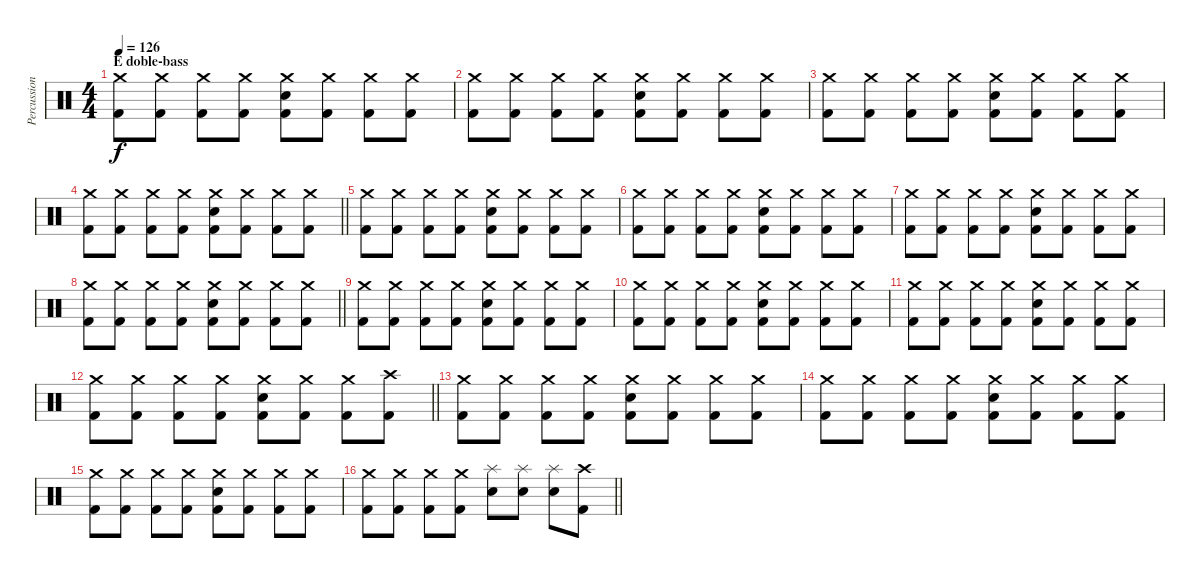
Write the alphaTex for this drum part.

\track ("Percussion" "Percussion") {instrument percussion}
\staff {score}
\articulation defaults
\ts (4 4)
\section ("" "E doble-bass")
\tempo 126
\clef neutral
\ks c
("Crash medium (hit)" "Kick (hit) 2").8{dy f} ("Crash medium (hit)" "Kick (hit) 2").8 ("Crash medium (hit)" "Kick (hit) 2").8 ("Crash medium (hit)" "Kick (hit) 2").8 ("Crash medium (hit)" "Electric Snare (hit)" "Kick (hit) 2").8 ("Crash medium (hit)" "Kick (hit) 2").8 ("Crash medium (hit)" "Kick (hit) 2").8 ("Crash medium (hit)" "Kick (hit) 2").8 |
("Crash medium (hit)" "Kick (hit) 2").8 ("Crash medium (hit)" "Kick (hit) 2").8 ("Crash medium (hit)" "Kick (hit) 2").8 ("Crash medium (hit)" "Kick (hit) 2").8 ("Crash medium (hit)" "Electric Snare (hit)" "Kick (hit) 2").8 ("Crash medium (hit)" "Kick (hit) 2").8 ("Crash medium (hit)" "Kick (hit) 2").8 ("Crash medium (hit)" "Kick (hit) 2").8 |
("Crash medium (hit)" "Kick (hit) 2").8 ("Crash medium (hit)" "Kick (hit) 2").8 ("Crash medium (hit)" "Kick (hit) 2").8 ("Crash medium (hit)" "Kick (hit) 2").8 ("Crash medium (hit)" "Electric Snare (hit)" "Kick (hit) 2").8 ("Crash medium (hit)" "Kick (hit) 2").8 ("Crash medium (hit)" "Kick (hit) 2").8 ("Crash medium (hit)" "Kick (hit) 2").8 |
\barLineRight lightlight
("Crash medium (hit)" "Kick (hit) 2").8 ("Crash medium (hit)" "Kick (hit) 2").8 ("Crash medium (hit)" "Kick (hit) 2").8 ("Crash medium (hit)" "Kick (hit) 2").8 ("Crash medium (hit)" "Electric Snare (hit)" "Kick (hit) 2").8 ("Crash medium (hit)" "Kick (hit) 2").8 ("Crash medium (hit)" "Kick (hit) 2").8 ("Crash medium (hit)" "Kick (hit) 2").8 |
("Crash medium (hit)" "Kick (hit) 2").8 ("Crash medium (hit)" "Kick (hit) 2").8 ("Crash medium (hit)" "Kick (hit) 2").8 ("Crash medium (hit)" "Kick (hit) 2").8 ("Crash medium (hit)" "Electric Snare (hit)" "Kick (hit) 2").8 ("Crash medium (hit)" "Kick (hit) 2").8 ("Crash medium (hit)" "Kick (hit) 2").8 ("Crash medium (hit)" "Kick (hit) 2").8 |
("Crash medium (hit)" "Kick (hit) 2").8 ("Crash medium (hit)" "Kick (hit) 2").8 ("Crash medium (hit)" "Kick (hit) 2").8 ("Crash medium (hit)" "Kick (hit) 2").8 ("Crash medium (hit)" "Electric Snare (hit)" "Kick (hit) 2").8 ("Crash medium (hit)" "Kick (hit) 2").8 ("Crash medium (hit)" "Kick (hit) 2").8 ("Crash medium (hit)" "Kick (hit) 2").8 |
("Crash medium (hit)" "Kick (hit) 2").8 ("Crash medium (hit)" "Kick (hit) 2").8 ("Crash medium (hit)" "Kick (hit) 2").8 ("Crash medium (hit)" "Kick (hit) 2").8 ("Crash medium (hit)" "Electric Snare (hit)" "Kick (hit) 2").8 ("Crash medium (hit)" "Kick (hit) 2").8 ("Crash medium (hit)" "Kick (hit) 2").8 ("Crash medium (hit)" "Kick (hit) 2").8 |
\barLineRight lightlight
("Crash medium (hit)" "Kick (hit) 2").8 ("Crash medium (hit)" "Kick (hit) 2").8 ("Crash medium (hit)" "Kick (hit) 2").8 ("Crash medium (hit)" "Kick (hit) 2").8 ("Crash medium (hit)" "Electric Snare (hit)" "Kick (hit) 2").8 ("Crash medium (hit)" "Kick (hit) 2").8 ("Crash medium (hit)" "Kick (hit) 2").8 ("Crash medium (hit)" "Kick (hit) 2").8 |
("Crash medium (hit)" "Kick (hit) 2").8 ("Crash medium (hit)" "Kick (hit) 2").8 ("Crash medium (hit)" "Kick (hit) 2").8 ("Crash medium (hit)" "Kick (hit) 2").8 ("Crash medium (hit)" "Electric Snare (hit)" "Kick (hit) 2").8 ("Crash medium (hit)" "Kick (hit) 2").8 ("Crash medium (hit)" "Kick (hit) 2").8 ("Crash medium (hit)" "Kick (hit) 2").8 |
("Crash medium (hit)" "Kick (hit) 2").8 ("Crash medium (hit)" "Kick (hit) 2").8 ("Crash medium (hit)" "Kick (hit) 2").8 ("Crash medium (hit)" "Kick (hit) 2").8 ("Crash medium (hit)" "Electric Snare (hit)" "Kick (hit) 2").8 ("Crash medium (hit)" "Kick (hit) 2").8 ("Crash medium (hit)" "Kick (hit) 2").8 ("Crash medium (hit)" "Kick (hit) 2").8 |
("Crash medium (hit)" "Kick (hit) 2").8 ("Crash medium (hit)" "Kick (hit) 2").8 ("Crash medium (hit)" "Kick (hit) 2").8 ("Crash medium (hit)" "Kick (hit) 2").8 ("Crash medium (hit)" "Electric Snare (hit)" "Kick (hit) 2").8 ("Crash medium (hit)" "Kick (hit) 2").8 ("Crash medium (hit)" "Kick (hit) 2").8 ("Crash medium (hit)" "Kick (hit) 2").8 |
\barLineRight lightlight
("Crash medium (hit)" "Kick (hit) 2").8 ("Crash medium (hit)" "Kick (hit) 2").8 ("Crash medium (hit)" "Kick (hit) 2").8 ("Crash medium (hit)" "Kick (hit) 2").8 ("Crash medium (hit)" "Electric Snare (hit)" "Kick (hit) 2").8 ("Crash medium (hit)" "Kick (hit) 2").8 ("Crash medium (hit)" "Kick (hit) 2").8 ("Crash high (hit)" "Kick (hit) 2").8 |
("Crash medium (hit)" "Kick (hit) 2").8 ("Crash medium (hit)" "Kick (hit) 2").8 ("Crash medium (hit)" "Kick (hit) 2").8 ("Crash medium (hit)" "Kick (hit) 2").8 ("Crash medium (hit)" "Electric Snare (hit)" "Kick (hit) 2").8 ("Crash medium (hit)" "Kick (hit) 2").8 ("Crash medium (hit)" "Kick (hit) 2").8 ("Crash medium (hit)" "Kick (hit) 2").8 |
("Crash medium (hit)" "Kick (hit) 2").8 ("Crash medium (hit)" "Kick (hit) 2").8 ("Crash medium (hit)" "Kick (hit) 2").8 ("Crash medium (hit)" "Kick (hit) 2").8 ("Crash medium (hit)" "Electric Snare (hit)" "Kick (hit) 2").8 ("Crash medium (hit)" "Kick (hit) 2").8 ("Crash medium (hit)" "Kick (hit) 2").8 ("Crash medium (hit)" "Kick (hit) 2").8 |
("Crash medium (hit)" "Kick (hit) 2").8 ("Crash medium (hit)" "Kick (hit) 2").8 ("Crash medium (hit)" "Kick (hit) 2").8 ("Crash medium (hit)" "Kick (hit) 2").8 ("Crash medium (hit)" "Electric Snare (hit)" "Kick (hit) 2").8 ("Crash medium (hit)" "Kick (hit) 2").8 ("Crash medium (hit)" "Kick (hit) 2").8 ("Crash medium (hit)" "Kick (hit) 2").8 |
\barLineRight lightlight
("Crash medium (hit)" "Kick (hit) 2").8 ("Crash medium (hit)" "Kick (hit) 2").8 ("Crash medium (hit)" "Kick (hit) 2").8 ("Crash medium (hit)" "Kick (hit) 2").8 ("Splash (hit)" "Electric Snare (hit)").8 ("Splash (hit)" "Electric Snare (hit)").8 ("Splash (hit)" "Electric Snare (hit)").8 ("Crash high (hit)" "Kick (hit) 2").8
